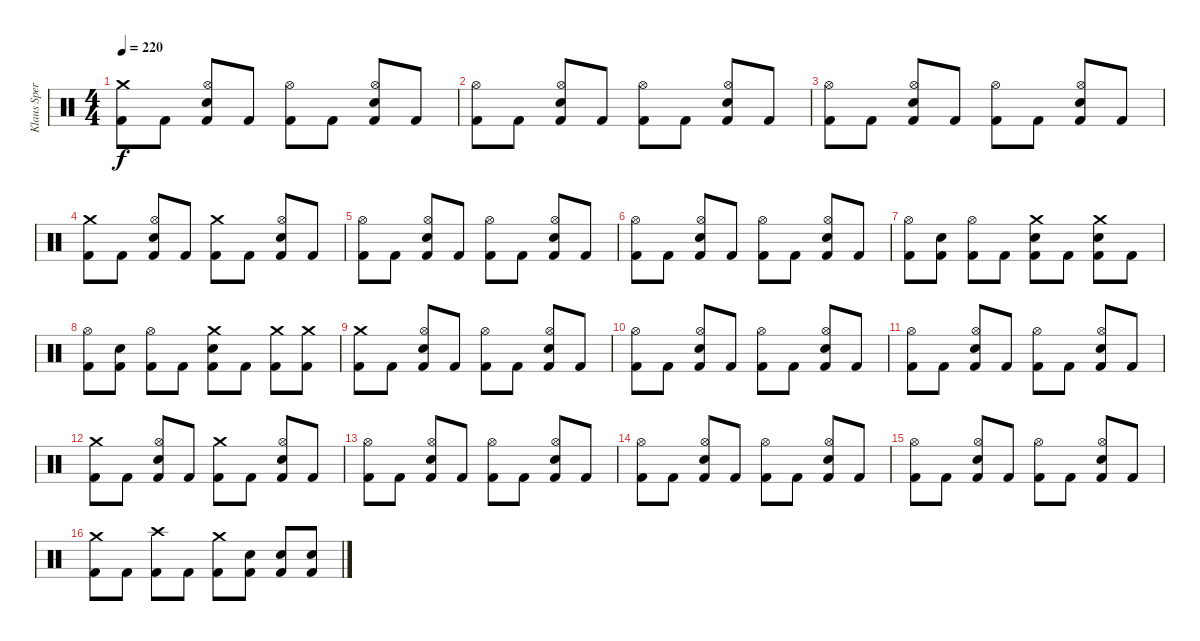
\track ("Klaus Sperling" "Klaus Sper") {instrument percussion}
\staff {score}
\articulation defaults
\ts (4 4)
\tempo 220
\clef neutral
\ks c
("Crash medium (hit)" "Kick (hit) 2").8{dy f} "Kick (hit) 2".8 ("Hi-Hat (open)" "Electric Snare (hit)" "Kick (hit) 2").8 "Kick (hit) 2".8 ("Hi-Hat (open)" "Kick (hit) 2").8 "Kick (hit) 2".8 ("Hi-Hat (open)" "Electric Snare (hit)" "Kick (hit) 2").8 "Kick (hit) 2".8 |
("Hi-Hat (open)" "Kick (hit) 2").8 "Kick (hit) 2".8 ("Hi-Hat (open)" "Electric Snare (hit)" "Kick (hit) 2").8 "Kick (hit) 2".8 ("Hi-Hat (open)" "Kick (hit) 2").8 "Kick (hit) 2".8 ("Hi-Hat (open)" "Electric Snare (hit)" "Kick (hit) 2").8 "Kick (hit) 2".8 |
("Hi-Hat (open)" "Kick (hit) 2").8 "Kick (hit) 2".8 ("Hi-Hat (open)" "Electric Snare (hit)" "Kick (hit) 2").8 "Kick (hit) 2".8 ("Hi-Hat (open)" "Kick (hit) 2").8 "Kick (hit) 2".8 ("Hi-Hat (open)" "Electric Snare (hit)" "Kick (hit) 2").8 "Kick (hit) 2".8 |
("Crash medium (hit)" "Kick (hit) 2").8 "Kick (hit) 2".8 ("Hi-Hat (open)" "Electric Snare (hit)" "Kick (hit) 2").8 "Kick (hit) 2".8 ("Crash medium (hit)" "Kick (hit) 2").8 "Kick (hit) 2".8 ("Hi-Hat (open)" "Electric Snare (hit)" "Kick (hit) 2").8 "Kick (hit) 2".8 |
("Hi-Hat (open)" "Kick (hit) 2").8 "Kick (hit) 2".8 ("Hi-Hat (open)" "Electric Snare (hit)" "Kick (hit) 2").8 "Kick (hit) 2".8 ("Hi-Hat (open)" "Kick (hit) 2").8 "Kick (hit) 2".8 ("Hi-Hat (open)" "Electric Snare (hit)" "Kick (hit) 2").8 "Kick (hit) 2".8 |
("Hi-Hat (open)" "Kick (hit) 2").8 "Kick (hit) 2".8 ("Hi-Hat (open)" "Electric Snare (hit)" "Kick (hit) 2").8 "Kick (hit) 2".8 ("Hi-Hat (open)" "Kick (hit) 2").8 "Kick (hit) 2".8 ("Hi-Hat (open)" "Electric Snare (hit)" "Kick (hit) 2").8 "Kick (hit) 2".8 |
("Hi-Hat (open)" "Kick (hit) 2").8 ("Electric Snare (hit)" "Kick (hit) 2").8 ("Hi-Hat (open)" "Kick (hit) 2").8 "Kick (hit) 2".8 ("Crash medium (hit)" "Electric Snare (hit)" "Kick (hit) 2").8 "Kick (hit) 2".8 ("Crash medium (hit)" "Electric Snare (hit)" "Kick (hit) 2").8 "Kick (hit) 2".8 |
("Hi-Hat (open)" "Kick (hit) 2").8 ("Electric Snare (hit)" "Kick (hit) 2").8 ("Hi-Hat (open)" "Kick (hit) 2").8 "Kick (hit) 2".8 ("Crash medium (hit)" "Electric Snare (hit)" "Kick (hit) 2").8 "Kick (hit) 2".8 ("Crash medium (hit)" "Kick (hit) 2").8 ("Crash medium (hit)" "Kick (hit) 2").8 |
("Crash medium (hit)" "Kick (hit) 2").8 "Kick (hit) 2".8 ("Hi-Hat (open)" "Electric Snare (hit)" "Kick (hit) 2").8 "Kick (hit) 2".8 ("Hi-Hat (open)" "Kick (hit) 2").8 "Kick (hit) 2".8 ("Hi-Hat (open)" "Electric Snare (hit)" "Kick (hit) 2").8 "Kick (hit) 2".8 |
("Hi-Hat (open)" "Kick (hit) 2").8 "Kick (hit) 2".8 ("Hi-Hat (open)" "Electric Snare (hit)" "Kick (hit) 2").8 "Kick (hit) 2".8 ("Hi-Hat (open)" "Kick (hit) 2").8 "Kick (hit) 2".8 ("Hi-Hat (open)" "Electric Snare (hit)" "Kick (hit) 2").8 "Kick (hit) 2".8 |
("Hi-Hat (open)" "Kick (hit) 2").8 "Kick (hit) 2".8 ("Hi-Hat (open)" "Electric Snare (hit)" "Kick (hit) 2").8 "Kick (hit) 2".8 ("Hi-Hat (open)" "Kick (hit) 2").8 "Kick (hit) 2".8 ("Hi-Hat (open)" "Electric Snare (hit)" "Kick (hit) 2").8 "Kick (hit) 2".8 |
("Crash medium (hit)" "Kick (hit) 2").8 "Kick (hit) 2".8 ("Hi-Hat (open)" "Electric Snare (hit)" "Kick (hit) 2").8 "Kick (hit) 2".8 ("Crash medium (hit)" "Kick (hit) 2").8 "Kick (hit) 2".8 ("Hi-Hat (open)" "Electric Snare (hit)" "Kick (hit) 2").8 "Kick (hit) 2".8 |
("Hi-Hat (open)" "Kick (hit) 2").8 "Kick (hit) 2".8 ("Hi-Hat (open)" "Electric Snare (hit)" "Kick (hit) 2").8 "Kick (hit) 2".8 ("Hi-Hat (open)" "Kick (hit) 2").8 "Kick (hit) 2".8 ("Hi-Hat (open)" "Electric Snare (hit)" "Kick (hit) 2").8 "Kick (hit) 2".8 |
("Hi-Hat (open)" "Kick (hit) 2").8 "Kick (hit) 2".8 ("Hi-Hat (open)" "Electric Snare (hit)" "Kick (hit) 2").8 "Kick (hit) 2".8 ("Hi-Hat (open)" "Kick (hit) 2").8 "Kick (hit) 2".8 ("Hi-Hat (open)" "Electric Snare (hit)" "Kick (hit) 2").8 "Kick (hit) 2".8 |
("Hi-Hat (open)" "Kick (hit) 2").8 "Kick (hit) 2".8 ("Hi-Hat (open)" "Electric Snare (hit)" "Kick (hit) 2").8 "Kick (hit) 2".8 ("Hi-Hat (open)" "Kick (hit) 2").8 "Kick (hit) 2".8 ("Hi-Hat (open)" "Electric Snare (hit)" "Kick (hit) 2").8 "Kick (hit) 2".8 |
("Crash medium (hit)" "Kick (hit) 2").8 "Kick (hit) 2".8 ("Crash high (hit)" "Kick (hit) 2").8 "Kick (hit) 2".8 ("Crash medium (hit)" "Kick (hit) 2").8 ("Electric Snare (hit)" "Kick (hit) 2").8 ("Electric Snare (hit)" "Kick (hit) 2").8 ("Electric Snare (hit)" "Kick (hit) 2").8
